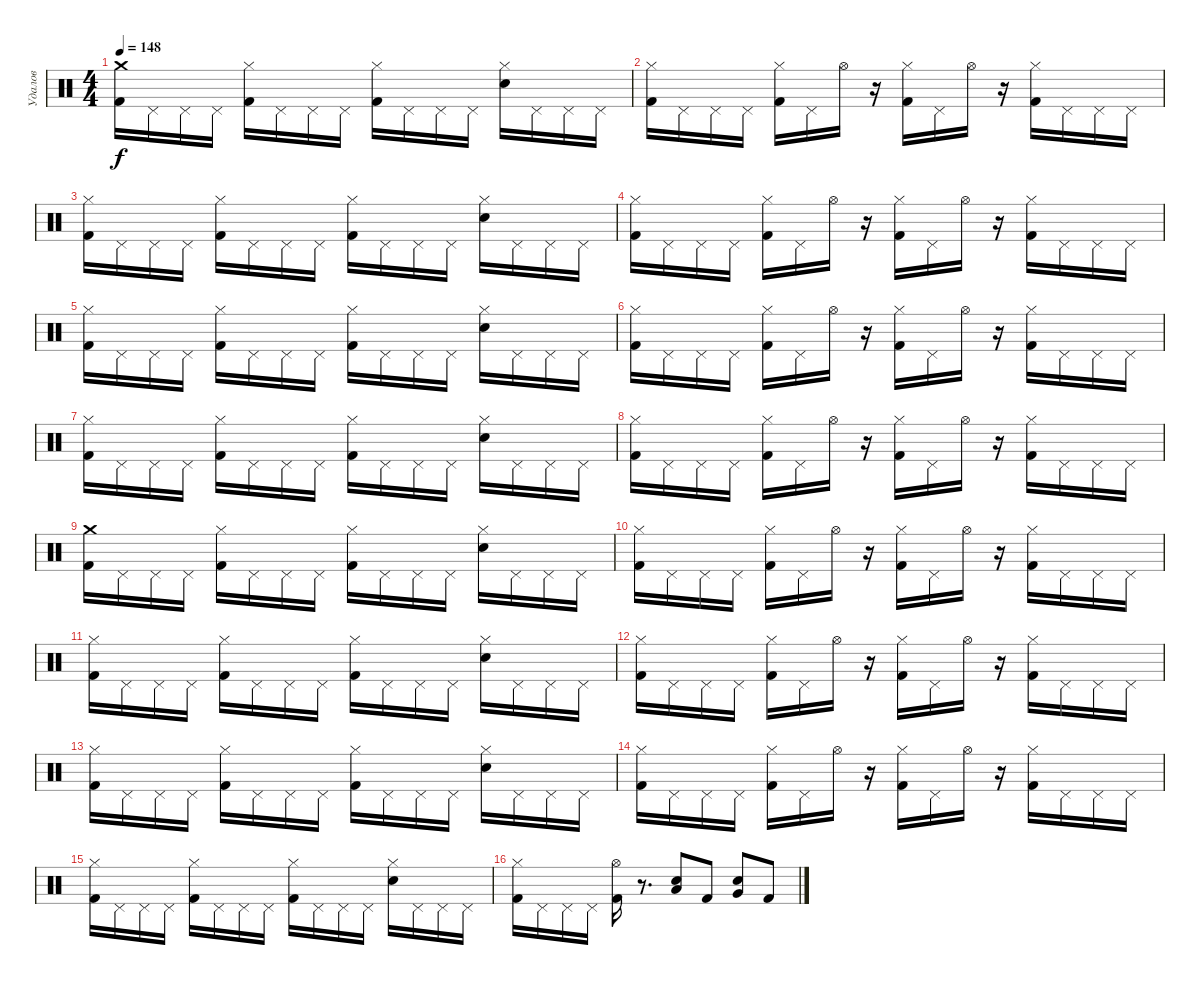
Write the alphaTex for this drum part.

\track ("Удалов" "Удалов") {instrument percussion}
\staff {score}
\articulation defaults
\ts (4 4)
\tempo 148
\clef neutral
\ks c
("Kick (hit) 2" "Crash medium (hit)").16{dy f} "Pedal Hi-Hat (hit)".16 "Pedal Hi-Hat (hit)".16 "Pedal Hi-Hat (hit)".16 ("Kick (hit) 2" "Hi-Hat (closed)").16 "Pedal Hi-Hat (hit)".16 "Pedal Hi-Hat (hit)".16 "Pedal Hi-Hat (hit)".16 ("Kick (hit) 2" "Hi-Hat (closed)").16 "Pedal Hi-Hat (hit)".16 "Pedal Hi-Hat (hit)".16 "Pedal Hi-Hat (hit)".16 ("Hi-Hat (closed)" "Snare (hit) 2").16 "Pedal Hi-Hat (hit)".16 "Pedal Hi-Hat (hit)".16 "Pedal Hi-Hat (hit)".16 |
("Kick (hit) 2" "Hi-Hat (closed)").16 "Pedal Hi-Hat (hit)".16 "Pedal Hi-Hat (hit)".16 "Pedal Hi-Hat (hit)".16 ("Kick (hit) 2" "Hi-Hat (closed)").16 "Pedal Hi-Hat (hit)".16 "Hi-Hat (open)".16 r.16 ("Kick (hit) 2" "Hi-Hat (closed)").16 "Pedal Hi-Hat (hit)".16 "Hi-Hat (open)".16 r.16 ("Kick (hit) 2" "Hi-Hat (closed)").16 "Pedal Hi-Hat (hit)".16 "Pedal Hi-Hat (hit)".16 "Pedal Hi-Hat (hit)".16 |
("Kick (hit) 2" "Hi-Hat (closed)").16 "Pedal Hi-Hat (hit)".16 "Pedal Hi-Hat (hit)".16 "Pedal Hi-Hat (hit)".16 ("Kick (hit) 2" "Hi-Hat (closed)").16 "Pedal Hi-Hat (hit)".16 "Pedal Hi-Hat (hit)".16 "Pedal Hi-Hat (hit)".16 ("Kick (hit) 2" "Hi-Hat (closed)").16 "Pedal Hi-Hat (hit)".16 "Pedal Hi-Hat (hit)".16 "Pedal Hi-Hat (hit)".16 ("Hi-Hat (closed)" "Snare (hit) 2").16 "Pedal Hi-Hat (hit)".16 "Pedal Hi-Hat (hit)".16 "Pedal Hi-Hat (hit)".16 |
("Kick (hit) 2" "Hi-Hat (closed)").16 "Pedal Hi-Hat (hit)".16 "Pedal Hi-Hat (hit)".16 "Pedal Hi-Hat (hit)".16 ("Kick (hit) 2" "Hi-Hat (closed)").16 "Pedal Hi-Hat (hit)".16 "Hi-Hat (open)".16 r.16 ("Kick (hit) 2" "Hi-Hat (closed)").16 "Pedal Hi-Hat (hit)".16 "Hi-Hat (open)".16 r.16 ("Kick (hit) 2" "Hi-Hat (closed)").16 "Pedal Hi-Hat (hit)".16 "Pedal Hi-Hat (hit)".16 "Pedal Hi-Hat (hit)".16 |
("Kick (hit) 2" "Hi-Hat (closed)").16 "Pedal Hi-Hat (hit)".16 "Pedal Hi-Hat (hit)".16 "Pedal Hi-Hat (hit)".16 ("Kick (hit) 2" "Hi-Hat (closed)").16 "Pedal Hi-Hat (hit)".16 "Pedal Hi-Hat (hit)".16 "Pedal Hi-Hat (hit)".16 ("Kick (hit) 2" "Hi-Hat (closed)").16 "Pedal Hi-Hat (hit)".16 "Pedal Hi-Hat (hit)".16 "Pedal Hi-Hat (hit)".16 ("Hi-Hat (closed)" "Snare (hit) 2").16 "Pedal Hi-Hat (hit)".16 "Pedal Hi-Hat (hit)".16 "Pedal Hi-Hat (hit)".16 |
("Kick (hit) 2" "Hi-Hat (closed)").16 "Pedal Hi-Hat (hit)".16 "Pedal Hi-Hat (hit)".16 "Pedal Hi-Hat (hit)".16 ("Kick (hit) 2" "Hi-Hat (closed)").16 "Pedal Hi-Hat (hit)".16 "Hi-Hat (open)".16 r.16 ("Kick (hit) 2" "Hi-Hat (closed)").16 "Pedal Hi-Hat (hit)".16 "Hi-Hat (open)".16 r.16 ("Kick (hit) 2" "Hi-Hat (closed)").16 "Pedal Hi-Hat (hit)".16 "Pedal Hi-Hat (hit)".16 "Pedal Hi-Hat (hit)".16 |
("Kick (hit) 2" "Hi-Hat (closed)").16 "Pedal Hi-Hat (hit)".16 "Pedal Hi-Hat (hit)".16 "Pedal Hi-Hat (hit)".16 ("Kick (hit) 2" "Hi-Hat (closed)").16 "Pedal Hi-Hat (hit)".16 "Pedal Hi-Hat (hit)".16 "Pedal Hi-Hat (hit)".16 ("Kick (hit) 2" "Hi-Hat (closed)").16 "Pedal Hi-Hat (hit)".16 "Pedal Hi-Hat (hit)".16 "Pedal Hi-Hat (hit)".16 ("Hi-Hat (closed)" "Snare (hit) 2").16 "Pedal Hi-Hat (hit)".16 "Pedal Hi-Hat (hit)".16 "Pedal Hi-Hat (hit)".16 |
("Kick (hit) 2" "Hi-Hat (closed)").16 "Pedal Hi-Hat (hit)".16 "Pedal Hi-Hat (hit)".16 "Pedal Hi-Hat (hit)".16 ("Kick (hit) 2" "Hi-Hat (closed)").16 "Pedal Hi-Hat (hit)".16 "Hi-Hat (open)".16 r.16 ("Kick (hit) 2" "Hi-Hat (closed)").16 "Pedal Hi-Hat (hit)".16 "Hi-Hat (open)".16 r.16 ("Kick (hit) 2" "Hi-Hat (closed)").16 "Pedal Hi-Hat (hit)".16 "Pedal Hi-Hat (hit)".16 "Pedal Hi-Hat (hit)".16 |
("Kick (hit) 2" "Crash medium (hit)").16 "Pedal Hi-Hat (hit)".16 "Pedal Hi-Hat (hit)".16 "Pedal Hi-Hat (hit)".16 ("Kick (hit) 2" "Hi-Hat (closed)").16 "Pedal Hi-Hat (hit)".16 "Pedal Hi-Hat (hit)".16 "Pedal Hi-Hat (hit)".16 ("Kick (hit) 2" "Hi-Hat (closed)").16 "Pedal Hi-Hat (hit)".16 "Pedal Hi-Hat (hit)".16 "Pedal Hi-Hat (hit)".16 ("Hi-Hat (closed)" "Snare (hit) 2").16 "Pedal Hi-Hat (hit)".16 "Pedal Hi-Hat (hit)".16 "Pedal Hi-Hat (hit)".16 |
("Kick (hit) 2" "Hi-Hat (closed)").16 "Pedal Hi-Hat (hit)".16 "Pedal Hi-Hat (hit)".16 "Pedal Hi-Hat (hit)".16 ("Kick (hit) 2" "Hi-Hat (closed)").16 "Pedal Hi-Hat (hit)".16 "Hi-Hat (open)".16 r.16 ("Kick (hit) 2" "Hi-Hat (closed)").16 "Pedal Hi-Hat (hit)".16 "Hi-Hat (open)".16 r.16 ("Kick (hit) 2" "Hi-Hat (closed)").16 "Pedal Hi-Hat (hit)".16 "Pedal Hi-Hat (hit)".16 "Pedal Hi-Hat (hit)".16 |
("Kick (hit) 2" "Hi-Hat (closed)").16 "Pedal Hi-Hat (hit)".16 "Pedal Hi-Hat (hit)".16 "Pedal Hi-Hat (hit)".16 ("Kick (hit) 2" "Hi-Hat (closed)").16 "Pedal Hi-Hat (hit)".16 "Pedal Hi-Hat (hit)".16 "Pedal Hi-Hat (hit)".16 ("Kick (hit) 2" "Hi-Hat (closed)").16 "Pedal Hi-Hat (hit)".16 "Pedal Hi-Hat (hit)".16 "Pedal Hi-Hat (hit)".16 ("Hi-Hat (closed)" "Snare (hit) 2").16 "Pedal Hi-Hat (hit)".16 "Pedal Hi-Hat (hit)".16 "Pedal Hi-Hat (hit)".16 |
("Kick (hit) 2" "Hi-Hat (closed)").16 "Pedal Hi-Hat (hit)".16 "Pedal Hi-Hat (hit)".16 "Pedal Hi-Hat (hit)".16 ("Kick (hit) 2" "Hi-Hat (closed)").16 "Pedal Hi-Hat (hit)".16 "Hi-Hat (open)".16 r.16 ("Kick (hit) 2" "Hi-Hat (closed)").16 "Pedal Hi-Hat (hit)".16 "Hi-Hat (open)".16 r.16 ("Kick (hit) 2" "Hi-Hat (closed)").16 "Pedal Hi-Hat (hit)".16 "Pedal Hi-Hat (hit)".16 "Pedal Hi-Hat (hit)".16 |
("Kick (hit) 2" "Hi-Hat (closed)").16 "Pedal Hi-Hat (hit)".16 "Pedal Hi-Hat (hit)".16 "Pedal Hi-Hat (hit)".16 ("Kick (hit) 2" "Hi-Hat (closed)").16 "Pedal Hi-Hat (hit)".16 "Pedal Hi-Hat (hit)".16 "Pedal Hi-Hat (hit)".16 ("Kick (hit) 2" "Hi-Hat (closed)").16 "Pedal Hi-Hat (hit)".16 "Pedal Hi-Hat (hit)".16 "Pedal Hi-Hat (hit)".16 ("Hi-Hat (closed)" "Snare (hit) 2").16 "Pedal Hi-Hat (hit)".16 "Pedal Hi-Hat (hit)".16 "Pedal Hi-Hat (hit)".16 |
("Kick (hit) 2" "Hi-Hat (closed)").16 "Pedal Hi-Hat (hit)".16 "Pedal Hi-Hat (hit)".16 "Pedal Hi-Hat (hit)".16 ("Kick (hit) 2" "Hi-Hat (closed)").16 "Pedal Hi-Hat (hit)".16 "Hi-Hat (open)".16 r.16 ("Kick (hit) 2" "Hi-Hat (closed)").16 "Pedal Hi-Hat (hit)".16 "Hi-Hat (open)".16 r.16 ("Kick (hit) 2" "Hi-Hat (closed)").16 "Pedal Hi-Hat (hit)".16 "Pedal Hi-Hat (hit)".16 "Pedal Hi-Hat (hit)".16 |
("Kick (hit) 2" "Hi-Hat (closed)").16 "Pedal Hi-Hat (hit)".16 "Pedal Hi-Hat (hit)".16 "Pedal Hi-Hat (hit)".16 ("Kick (hit) 2" "Hi-Hat (closed)").16 "Pedal Hi-Hat (hit)".16 "Pedal Hi-Hat (hit)".16 "Pedal Hi-Hat (hit)".16 ("Kick (hit) 2" "Hi-Hat (closed)").16 "Pedal Hi-Hat (hit)".16 "Pedal Hi-Hat (hit)".16 "Pedal Hi-Hat (hit)".16 ("Hi-Hat (closed)" "Snare (hit) 2").16 "Pedal Hi-Hat (hit)".16 "Pedal Hi-Hat (hit)".16 "Pedal Hi-Hat (hit)".16 |
("Kick (hit) 2" "Hi-Hat (closed)").16 "Pedal Hi-Hat (hit)".16 "Pedal Hi-Hat (hit)".16 "Pedal Hi-Hat (hit)".16 ("Kick (hit) 2" "Hi-Hat (open)").16 r.8{d} ("Low Tom (hit)" "Snare (hit) 2").8 "Kick (hit) 2".8 ("Very Low Tom (hit)" "Snare (hit) 2").8 "Kick (hit) 2".8
